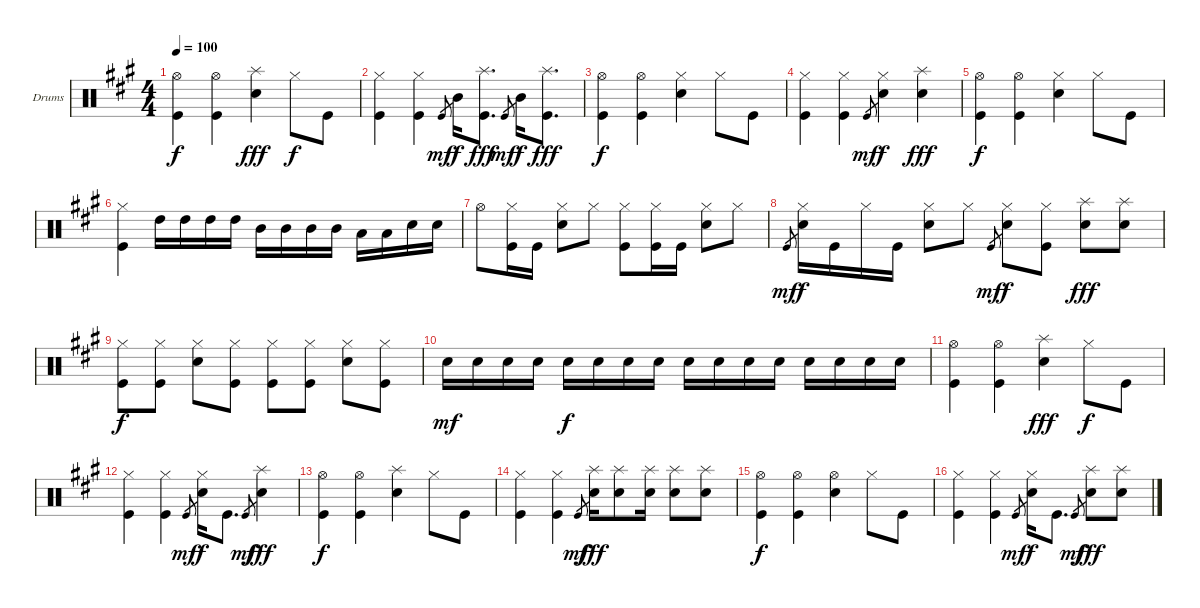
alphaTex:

\bracketExtendMode groupsimilarinstruments
\firstSystemTrackNameOrientation horizontal
\otherSystemsTrackNameOrientation horizontal
\track ("Drumkit" "Drums") {instrument percussion}
\staff {score}
\articulation defaults
\ts (4 4)
\tempo 100
\clef neutral
\scale
1.05801
\ks a
("Hi-Hat (open)" "Kick (hit)").4{dy f} ("Hi-Hat (open)" "Kick (hit)").4 ("Splash (hit)" "Snare (hit) 2").4{dy fff} "Hi-Hat (closed)".8{dy f} "Kick (hit)".8 |
\scale
0.941992 ("Hi-Hat (closed)" "Kick (hit)").4 ("Hi-Hat (closed)" "Kick (hit)").4 "Kick (hit)".8{gr dy mf} "Mid Tom (hit)".16{dy f} ("Splash (hit)" "Kick (hit)").8{d dy fff} "Kick (hit)".8{gr dy mf} "Mid Tom (hit)".16{dy f} ("Splash (hit)" "Kick (hit)").8{d dy fff} |
\scale
1.05801 ("Hi-Hat (open)" "Kick (hit)").4{dy f} ("Hi-Hat (open)" "Kick (hit)").4 ("Hi-Hat (closed)" "Snare (hit) 2").4 "Hi-Hat (closed)".8 "Kick (hit)".8 |
\scale
0.941992 ("Hi-Hat (closed)" "Kick (hit)").4 ("Hi-Hat (closed)" "Kick (hit)").4 "Kick (hit)".8{gr dy mf} ("Hi-Hat (closed)" "Snare (hit) 2").4{dy f} ("Splash (hit)" "Snare (hit) 2").4{dy fff} |
\scale
1.05801 ("Hi-Hat (open)" "Kick (hit)").4{dy f} ("Hi-Hat (open)" "Kick (hit)").4 ("Hi-Hat (closed)" "Snare (hit) 2").4 "Hi-Hat (closed)".8 "Kick (hit)".8 |
\scale
0.941992 ("Hi-Hat (closed)" "Kick (hit)").4 "High Tom (hit)".16 "High Tom (hit)".16 "High Tom (hit)".16 "High Tom (hit)".16 "Mid Tom (hit)".16 "Mid Tom (hit)".16 "Mid Tom (hit)".16 "Mid Tom (hit)".16 "Low Tom (hit)".16 "Low Tom (hit)".16 "Snare (hit) 2".16 "Snare (hit) 2".16 |
\scale
1.05801 "Hi-Hat (open)".8 ("Hi-Hat (closed)" "Kick (hit)").16 "Kick (hit)".16 ("Hi-Hat (closed)" "Snare (hit) 2").8 "Hi-Hat (closed)".8 ("Hi-Hat (closed)" "Kick (hit)").8 ("Hi-Hat (closed)" "Kick (hit)").16 "Kick (hit)".16 ("Hi-Hat (closed)" "Snare (hit) 2").8 "Hi-Hat (closed)".8 |
\scale
0.941992 "Kick (hit)".8{gr dy mf} ("Hi-Hat (closed)" "Snare (hit) 2").16{dy f} "Kick (hit)".16 "Hi-Hat (closed)".16 "Kick (hit)".16 ("Hi-Hat (closed)" "Snare (hit) 2").8 "Hi-Hat (closed)".8 "Kick (hit)".8{gr dy mf} ("Hi-Hat (closed)" "Snare (hit) 2").8{dy f} ("Hi-Hat (closed)" "Kick (hit)").8 ("Splash (hit)" "Snare (hit) 2").8{dy fff} ("Splash (hit)" "Snare (hit) 2").8 |
\scale
1.05801 ("Hi-Hat (closed)" "Kick (hit)").8{dy f} ("Hi-Hat (closed)" "Kick (hit)").8 ("Hi-Hat (closed)" "Snare (hit) 2").8 ("Hi-Hat (closed)" "Kick (hit)").8 ("Hi-Hat (closed)" "Kick (hit)").8 ("Hi-Hat (closed)" "Kick (hit)").8 ("Hi-Hat (closed)" "Snare (hit) 2").8 ("Hi-Hat (closed)" "Kick (hit)").8 |
\scale
0.941992 "Snare (hit) 2".16{dy mf} "Snare (hit) 2".16 "Snare (hit) 2".16 "Snare (hit) 2".16 "Snare (hit) 2".16{dy f} "Snare (hit) 2".16 "Snare (hit) 2".16 "Snare (hit) 2".16 "Snare (hit) 2".16 "Snare (hit) 2".16 "Snare (hit) 2".16 "Snare (hit) 2".16 "Snare (hit) 2".16 "Snare (hit) 2".16 "Snare (hit) 2".16 "Snare (hit) 2".16 |
\scale
1.05801 ("Hi-Hat (open)" "Kick (hit)").4 ("Hi-Hat (open)" "Kick (hit)").4 ("Splash (hit)" "Snare (hit) 2").4{dy fff} "Hi-Hat (closed)".8{dy f} "Kick (hit)".8 |
\scale
0.941992 ("Hi-Hat (closed)" "Kick (hit)").4 ("Hi-Hat (closed)" "Kick (hit)").4 "Kick (hit)".8{gr dy mf} ("Hi-Hat (closed)" "Snare (hit) 2").16{dy f} "Kick (hit)".8{d} "Kick (hit)".8{gr dy mf} ("Splash (hit)" "Snare (hit) 2").4{dy fff} |
\scale
1.05801 ("Hi-Hat (open)" "Kick (hit)").4{dy f} ("Hi-Hat (open)" "Kick (hit)").4 ("Splash (hit)" "Snare (hit) 2").4 "Hi-Hat (closed)".8 "Kick (hit)".8 |
\scale
0.941992 ("Hi-Hat (closed)" "Kick (hit)").4 ("Hi-Hat (closed)" "Kick (hit)").4 "Kick (hit)".8{gr dy mf} ("Splash (hit)" "Snare (hit) 2").16{dy fff} ("Splash (hit)" "Snare (hit) 2").8 ("Splash (hit)" "Snare (hit) 2").16 ("Splash (hit)" "Snare (hit) 2").8 ("Splash (hit)" "Snare (hit) 2").8 |
\scale
1.05801 ("Hi-Hat (open)" "Kick (hit)").4{dy f} ("Hi-Hat (open)" "Kick (hit)").4 ("Hi-Hat (open)" "Snare (hit) 2").4 "Hi-Hat (closed)".8 "Kick (hit)".8 |
\scale
0.941992 ("Hi-Hat (closed)" "Kick (hit)").4 ("Hi-Hat (closed)" "Kick (hit)").4 "Kick (hit)".8{gr dy mf} ("Hi-Hat (closed)" "Snare (hit) 2").16{dy f} "Kick (hit)".8{d} "Kick (hit)".8{gr dy mf} ("Splash (hit)" "Snare (hit) 2").8{dy fff} ("Splash (hit)" "Snare (hit) 2").8
